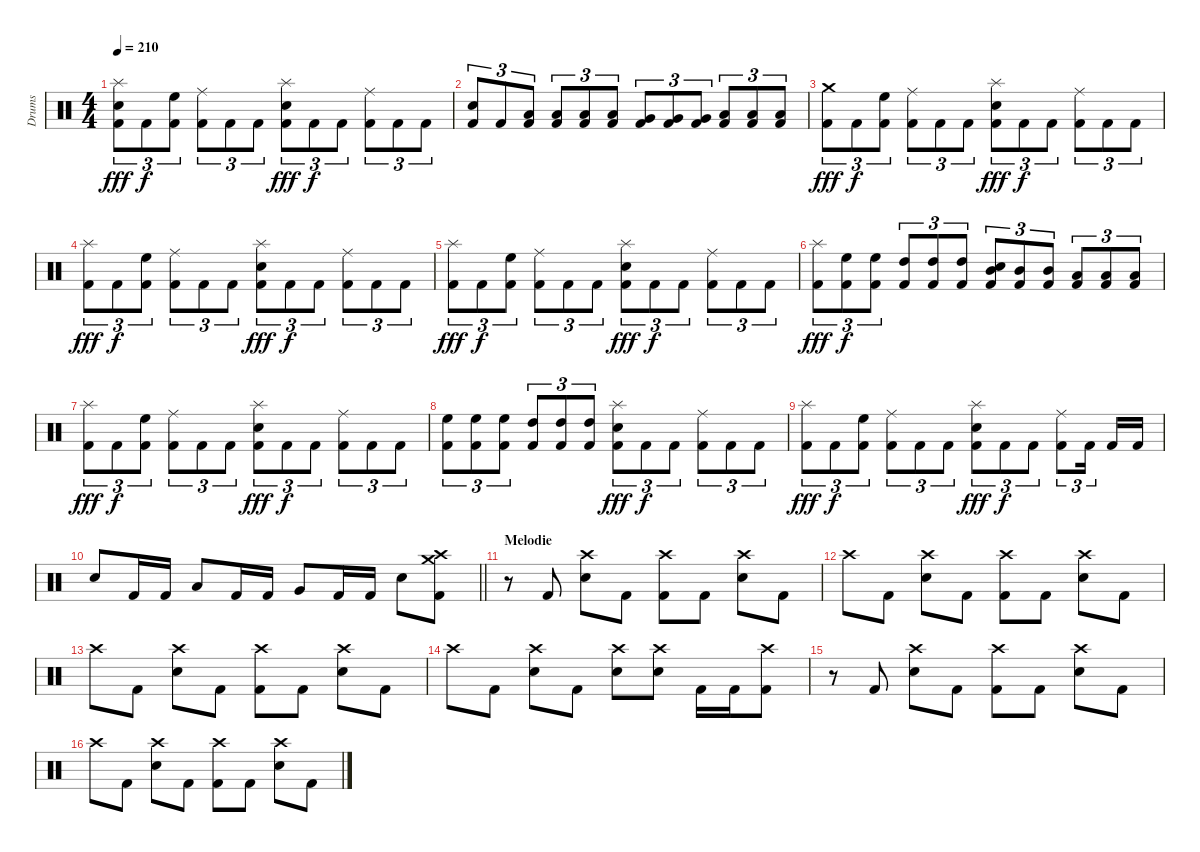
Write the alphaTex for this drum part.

\track ("Drums" "Drums") {instrument percussion}
\staff {score}
\articulation defaults
\ts (4 4)
\tempo 210
\clef neutral
\ks c
("Splash (hit)" "Electric Snare (hit)" "Kick (hit) 2").8{tu (3 2) dy fff} "Kick (hit) 2".8{tu (3 2) dy f} ("High Floor Tom (hit)" "Kick (hit) 2").8{tu (3 2)} ("Ride (middle)" "Kick (hit) 2").8{tu (3 2)} "Kick (hit) 2".8{tu (3 2)} "Kick (hit) 2".8{tu (3 2)} ("Splash (hit)" "Electric Snare (hit)" "Kick (hit) 2").8{tu (3 2) dy fff} "Kick (hit) 2".8{tu (3 2) dy f} "Kick (hit) 2".8{tu (3 2)} ("Ride (middle)" "Kick (hit) 2").8{tu (3 2)} "Kick (hit) 2".8{tu (3 2)} "Kick (hit) 2".8{tu (3 2)} |
("Electric Snare (hit)" "Kick (hit) 2").8{tu (3 2)} "Kick (hit) 2".8{tu (3 2)} ("Low Tom (hit)" "Kick (hit) 2").8{tu (3 2)} ("Low Tom (hit)" "Kick (hit) 2").8{tu (3 2)} ("Low Tom (hit)" "Kick (hit) 2").8{tu (3 2)} ("Low Tom (hit)" "Kick (hit) 2").8{tu (3 2)} ("Very Low Tom (hit)" "Kick (hit) 2").8{tu (3 2)} ("Very Low Tom (hit)" "Kick (hit) 2").8{tu (3 2)} ("Very Low Tom (hit)" "Kick (hit) 2").8{tu (3 2)} ("Low Floor Tom (hit)" "Kick (hit) 2").8{tu (3 2)} ("Low Floor Tom (hit)" "Kick (hit) 2").8{tu (3 2)} ("Low Floor Tom (hit)" "Kick (hit) 2").8{tu (3 2)} |
("Crash medium (hit)" "Kick (hit) 2").8{tu (3 2) dy fff} "Kick (hit) 2".8{tu (3 2) dy f} ("High Floor Tom (hit)" "Kick (hit) 2").8{tu (3 2)} ("Ride (middle)" "Kick (hit) 2").8{tu (3 2)} "Kick (hit) 2".8{tu (3 2)} "Kick (hit) 2".8{tu (3 2)} ("Splash (hit)" "Electric Snare (hit)" "Kick (hit) 2").8{tu (3 2) dy fff} "Kick (hit) 2".8{tu (3 2) dy f} "Kick (hit) 2".8{tu (3 2)} ("Ride (middle)" "Kick (hit) 2").8{tu (3 2)} "Kick (hit) 2".8{tu (3 2)} "Kick (hit) 2".8{tu (3 2)} |
("Splash (hit)" "Kick (hit) 2").8{tu (3 2) dy fff} "Kick (hit) 2".8{tu (3 2) dy f} ("High Floor Tom (hit)" "Kick (hit) 2").8{tu (3 2)} ("Ride (middle)" "Kick (hit) 2").8{tu (3 2)} "Kick (hit) 2".8{tu (3 2)} "Kick (hit) 2".8{tu (3 2)} ("Splash (hit)" "Electric Snare (hit)" "Kick (hit) 2").8{tu (3 2) dy fff} "Kick (hit) 2".8{tu (3 2) dy f} "Kick (hit) 2".8{tu (3 2)} ("Ride (middle)" "Kick (hit) 2").8{tu (3 2)} "Kick (hit) 2".8{tu (3 2)} "Kick (hit) 2".8{tu (3 2)} |
("Splash (hit)" "Kick (hit) 2").8{tu (3 2) dy fff} "Kick (hit) 2".8{tu (3 2) dy f} ("High Floor Tom (hit)" "Kick (hit) 2").8{tu (3 2)} ("Ride (middle)" "Kick (hit) 2").8{tu (3 2)} "Kick (hit) 2".8{tu (3 2)} "Kick (hit) 2".8{tu (3 2)} ("Splash (hit)" "Electric Snare (hit)" "Kick (hit) 2").8{tu (3 2) dy fff} "Kick (hit) 2".8{tu (3 2) dy f} "Kick (hit) 2".8{tu (3 2)} ("Ride (middle)" "Kick (hit) 2").8{tu (3 2)} "Kick (hit) 2".8{tu (3 2)} "Kick (hit) 2".8{tu (3 2)} |
("Splash (hit)" "Kick (hit) 2").8{tu (3 2) dy fff} ("High Floor Tom (hit)" "Kick (hit) 2").8{tu (3 2) dy f} ("High Floor Tom (hit)" "Kick (hit) 2").8{tu (3 2)} ("High Tom (hit)" "Kick (hit) 2").8{tu (3 2)} ("High Tom (hit)" "Kick (hit) 2").8{tu (3 2)} ("High Tom (hit)" "Kick (hit) 2").8{tu (3 2)} ("Mid Tom (hit)" "Electric Snare (hit)" "Kick (hit) 2").8{tu (3 2)} ("Mid Tom (hit)" "Kick (hit) 2").8{tu (3 2)} ("Mid Tom (hit)" "Kick (hit) 2").8{tu (3 2)} ("Low Tom (hit)" "Kick (hit) 2").8{tu (3 2)} ("Low Tom (hit)" "Kick (hit) 2").8{tu (3 2)} ("Low Tom (hit)" "Kick (hit) 2").8{tu (3 2)} |
("Splash (hit)" "Kick (hit) 2").8{tu (3 2) dy fff} "Kick (hit) 2".8{tu (3 2) dy f} ("High Floor Tom (hit)" "Kick (hit) 2").8{tu (3 2)} ("Ride (middle)" "Kick (hit) 2").8{tu (3 2)} "Kick (hit) 2".8{tu (3 2)} "Kick (hit) 2".8{tu (3 2)} ("Splash (hit)" "Electric Snare (hit)" "Kick (hit) 2").8{tu (3 2) dy fff} "Kick (hit) 2".8{tu (3 2) dy f} "Kick (hit) 2".8{tu (3 2)} ("Ride (middle)" "Kick (hit) 2").8{tu (3 2)} "Kick (hit) 2".8{tu (3 2)} "Kick (hit) 2".8{tu (3 2)} |
("High Floor Tom (hit)" "Kick (hit) 2").8{tu (3 2)} ("High Floor Tom (hit)" "Kick (hit) 2").8{tu (3 2)} ("High Floor Tom (hit)" "Kick (hit) 2").8{tu (3 2)} ("High Tom (hit)" "Kick (hit) 2").8{tu (3 2)} ("High Tom (hit)" "Kick (hit) 2").8{tu (3 2)} ("High Tom (hit)" "Kick (hit) 2").8{tu (3 2)} ("Splash (hit)" "Electric Snare (hit)" "Kick (hit) 2").8{tu (3 2) dy fff} "Kick (hit) 2".8{tu (3 2) dy f} "Kick (hit) 2".8{tu (3 2)} ("Ride (middle)" "Kick (hit) 2").8{tu (3 2)} "Kick (hit) 2".8{tu (3 2)} "Kick (hit) 2".8{tu (3 2)} |
("Splash (hit)" "Kick (hit) 2").8{tu (3 2) dy fff} "Kick (hit) 2".8{tu (3 2) dy f} ("High Floor Tom (hit)" "Kick (hit) 2").8{tu (3 2)} ("Ride (middle)" "Kick (hit) 2").8{tu (3 2)} "Kick (hit) 2".8{tu (3 2)} "Kick (hit) 2".8{tu (3 2)} ("Splash (hit)" "Electric Snare (hit)" "Kick (hit) 2").8{tu (3 2) dy fff} "Kick (hit) 2".8{tu (3 2) dy f} "Kick (hit) 2".8{tu (3 2)} ("Ride (middle)" "Kick (hit) 2").8{tu (3 2)} "Kick (hit) 2".16{tu (3 2) beam splitsecondary} "Kick (hit) 2".16 "Kick (hit) 2".16 |
\barLineRight lightlight "Electric Snare (hit)".8 "Kick (hit) 2".16 "Kick (hit) 2".16 "Low Tom (hit)".8 "Kick (hit) 2".16 "Kick (hit) 2".16 "Very Low Tom (hit)".8 "Kick (hit) 2".16 "Kick (hit) 2".16 "Electric Snare (hit)".8
("Crash medium (hit)" "Crash high (hit)" "Kick (hit) 2").8 |
\section ("" "Melodie")
r.8 "Kick (hit) 2".8 ("Crash high (hit)" "Electric Snare (hit)").8 "Kick (hit) 2".8 ("Crash high (hit)" "Kick (hit) 2").8 "Kick (hit) 2".8 ("Crash high (hit)" "Electric Snare (hit)").8 "Kick (hit) 2".8 |
"Crash high (hit)".8 "Kick (hit) 2".8 ("Crash high (hit)" "Electric Snare (hit)").8 "Kick (hit) 2".8 ("Crash high (hit)" "Kick (hit) 2").8 "Kick (hit) 2".8 ("Crash high (hit)" "Electric Snare (hit)").8 "Kick (hit) 2".8 |
"Crash high (hit)".8 "Kick (hit) 2".8 ("Crash high (hit)" "Electric Snare (hit)").8 "Kick (hit) 2".8 ("Crash high (hit)" "Kick (hit) 2").8 "Kick (hit) 2".8 ("Crash high (hit)" "Electric Snare (hit)").8 "Kick (hit) 2".8 |
"Crash high (hit)".8 "Kick (hit) 2".8 ("Crash high (hit)" "Electric Snare (hit)").8 "Kick (hit) 2".8 ("Crash high (hit)" "Electric Snare (hit)").8 ("Crash high (hit)" "Electric Snare (hit)").8 "Kick (hit) 2".16 "Kick (hit) 2".16 ("Crash high (hit)" "Kick (hit) 2").8 |
r.8 "Kick (hit) 2".8 ("Crash high (hit)" "Electric Snare (hit)").8 "Kick (hit) 2".8 ("Crash high (hit)" "Kick (hit) 2").8 "Kick (hit) 2".8 ("Crash high (hit)" "Electric Snare (hit)").8 "Kick (hit) 2".8 |
"Crash high (hit)".8 "Kick (hit) 2".8 ("Crash high (hit)" "Electric Snare (hit)").8 "Kick (hit) 2".8 ("Crash high (hit)" "Kick (hit) 2").8 "Kick (hit) 2".8 ("Crash high (hit)" "Electric Snare (hit)").8 "Kick (hit) 2".8
